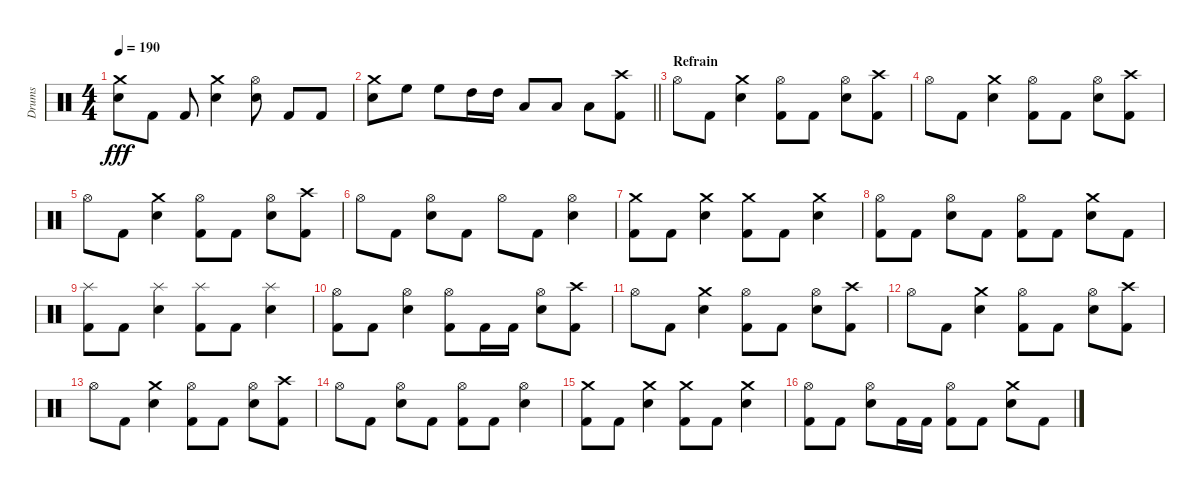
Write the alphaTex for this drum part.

\track ("Drums" "Drums") {instrument percussion}
\staff {score}
\articulation defaults
\ts (4 4)
\tempo 190
\clef neutral
\ks c
("Electric Snare (hit)" "Crash medium (hit)").8{dy fff} "Kick (hit) 2".8 "Kick (hit) 2".8 ("Electric Snare (hit)" "Crash medium (hit)").4 ("Electric Snare (hit)" "Hi-Hat (open)").8 "Kick (hit) 2".8 "Kick (hit) 2".8 |
\barLineRight lightlight
("Electric Snare (hit)" "Crash medium (hit)").8 "High Floor Tom (hit)".8 "High Floor Tom (hit)".8 "High Tom (hit)".16 "High Tom (hit)".16 "Low Tom (hit)".8 "Low Tom (hit)".8 "Low Tom (hit)".8 ("Kick (hit) 2" "Crash high (hit)").8 |
\section ("" "Refrain")
"Hi-Hat (open)".8 "Kick (hit) 2".8 ("Electric Snare (hit)" "Crash medium (hit)").4 ("Kick (hit) 2" "Hi-Hat (open)").8 "Kick (hit) 2".8 ("Electric Snare (hit)" "Hi-Hat (open)").8 ("Kick (hit) 2" "Crash high (hit)").8 |
"Hi-Hat (open)".8 "Kick (hit) 2".8 ("Electric Snare (hit)" "Crash medium (hit)").4 ("Kick (hit) 2" "Hi-Hat (open)").8 "Kick (hit) 2".8 ("Electric Snare (hit)" "Hi-Hat (open)").8 ("Kick (hit) 2" "Crash high (hit)").8 |
"Hi-Hat (open)".8 "Kick (hit) 2".8 ("Electric Snare (hit)" "Crash medium (hit)").4 ("Kick (hit) 2" "Hi-Hat (open)").8 "Kick (hit) 2".8 ("Electric Snare (hit)" "Hi-Hat (open)").8 ("Kick (hit) 2" "Crash high (hit)").8 |
"Hi-Hat (open)".8 "Kick (hit) 2".8 ("Electric Snare (hit)" "Hi-Hat (open)").8 "Kick (hit) 2".8 "Hi-Hat (open)".8 "Kick (hit) 2".8 ("Electric Snare (hit)" "Hi-Hat (open)").4 |
("Kick (hit) 2" "Crash medium (hit)").8 "Kick (hit) 2".8 ("Electric Snare (hit)" "Crash medium (hit)").4 ("Kick (hit) 2" "Crash medium (hit)").8 "Kick (hit) 2".8 ("Electric Snare (hit)" "Crash medium (hit)").4 |
("Kick (hit) 2" "Hi-Hat (open)").8 "Kick (hit) 2".8 ("Electric Snare (hit)" "Hi-Hat (open)").8 "Kick (hit) 2".8 ("Kick (hit) 2" "Hi-Hat (open)").8 "Kick (hit) 2".8 ("Electric Snare (hit)" "Crash medium (hit)").8 "Kick (hit) 2".8 |
("Kick (hit) 2" "Splash (hit)").8 "Kick (hit) 2".8 ("Electric Snare (hit)" "Splash (hit)").4 ("Kick (hit) 2" "Splash (hit)").8 "Kick (hit) 2".8 ("Electric Snare (hit)" "Splash (hit)").4 |
("Kick (hit) 2" "Hi-Hat (open)").8 "Kick (hit) 2".8 ("Electric Snare (hit)" "Hi-Hat (open)").4 ("Kick (hit) 2" "Hi-Hat (open)").8 "Kick (hit) 2".16 "Kick (hit) 2".16 ("Electric Snare (hit)" "Hi-Hat (open)").8 ("Kick (hit) 2" "Crash high (hit)").8 |
"Hi-Hat (open)".8 "Kick (hit) 2".8 ("Electric Snare (hit)" "Crash medium (hit)").4 ("Kick (hit) 2" "Hi-Hat (open)").8 "Kick (hit) 2".8 ("Electric Snare (hit)" "Hi-Hat (open)").8 ("Kick (hit) 2" "Crash high (hit)").8 |
"Hi-Hat (open)".8 "Kick (hit) 2".8 ("Electric Snare (hit)" "Crash medium (hit)").4 ("Kick (hit) 2" "Hi-Hat (open)").8 "Kick (hit) 2".8 ("Electric Snare (hit)" "Hi-Hat (open)").8 ("Kick (hit) 2" "Crash high (hit)").8 |
"Hi-Hat (open)".8 "Kick (hit) 2".8 ("Electric Snare (hit)" "Crash medium (hit)").4 ("Kick (hit) 2" "Hi-Hat (open)").8 "Kick (hit) 2".8 ("Electric Snare (hit)" "Hi-Hat (open)").8 ("Kick (hit) 2" "Crash high (hit)").8 |
"Hi-Hat (open)".8 "Kick (hit) 2".8 ("Electric Snare (hit)" "Hi-Hat (open)").8 "Kick (hit) 2".8 ("Kick (hit) 2" "Hi-Hat (open)").8 "Kick (hit) 2".8 ("Electric Snare (hit)" "Hi-Hat (open)").4 |
("Kick (hit) 2" "Crash medium (hit)").8 "Kick (hit) 2".8 ("Electric Snare (hit)" "Crash medium (hit)").4 ("Kick (hit) 2" "Crash medium (hit)").8 "Kick (hit) 2".8 ("Electric Snare (hit)" "Crash medium (hit)").4 |
("Kick (hit) 2" "Hi-Hat (open)").8 "Kick (hit) 2".8 ("Electric Snare (hit)" "Hi-Hat (open)").8 "Kick (hit) 2".16 "Kick (hit) 2".16 ("Kick (hit) 2" "Hi-Hat (open)").8 "Kick (hit) 2".8 ("Electric Snare (hit)" "Crash medium (hit)").8 "Kick (hit) 2".8
